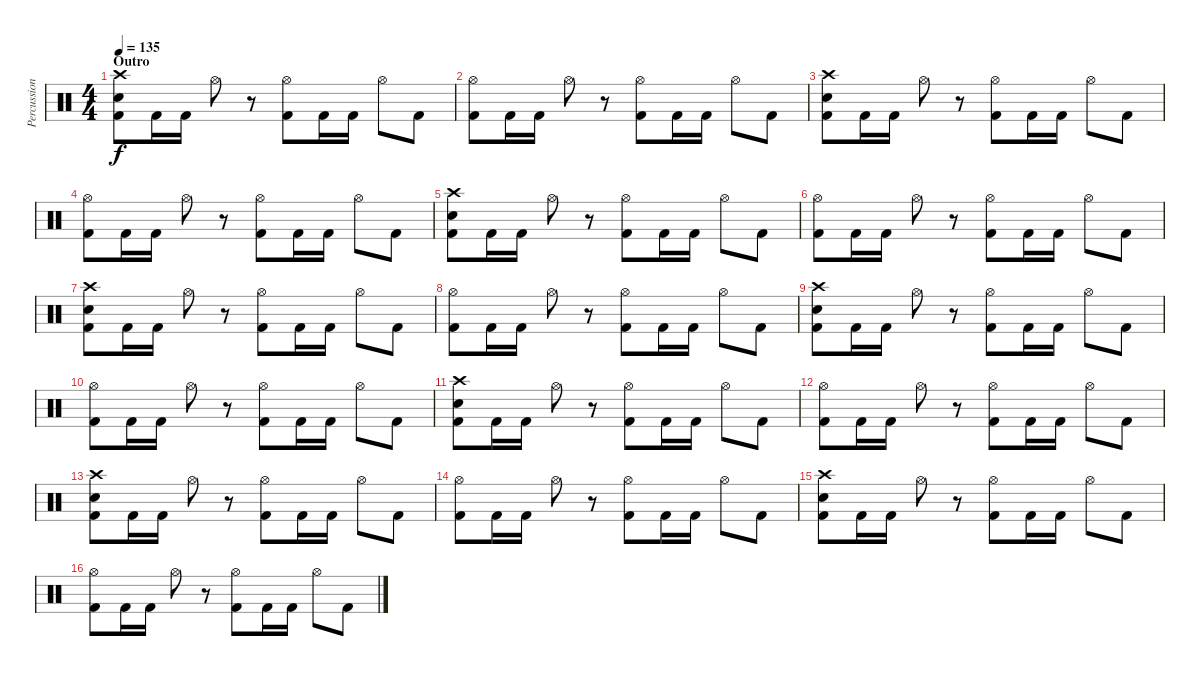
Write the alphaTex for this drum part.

\track ("Percussion" "Percussion") {instrument percussion}
\staff {score}
\articulation defaults
\ts (4 4)
\section ("" "Outro")
\tempo 135
\clef neutral
\ks c
("Crash high (hit)" "Electric Snare (hit)" "Kick (hit) 2").8{dy f} "Kick (hit) 2".16 "Kick (hit) 2".16 "Hi-Hat (open)".8 r.8 ("Hi-Hat (open)" "Kick (hit) 2").8 "Kick (hit) 2".16 "Kick (hit) 2".16 "Hi-Hat (open)".8 "Kick (hit) 2".8 |
("Hi-Hat (open)" "Kick (hit) 2").8 "Kick (hit) 2".16 "Kick (hit) 2".16 "Hi-Hat (open)".8 r.8 ("Hi-Hat (open)" "Kick (hit) 2").8 "Kick (hit) 2".16 "Kick (hit) 2".16 "Hi-Hat (open)".8 "Kick (hit) 2".8 |
("Crash high (hit)" "Electric Snare (hit)" "Kick (hit) 2").8 "Kick (hit) 2".16 "Kick (hit) 2".16 "Hi-Hat (open)".8 r.8 ("Hi-Hat (open)" "Kick (hit) 2").8 "Kick (hit) 2".16 "Kick (hit) 2".16 "Hi-Hat (open)".8 "Kick (hit) 2".8 |
("Hi-Hat (open)" "Kick (hit) 2").8 "Kick (hit) 2".16 "Kick (hit) 2".16 "Hi-Hat (open)".8 r.8 ("Hi-Hat (open)" "Kick (hit) 2").8 "Kick (hit) 2".16 "Kick (hit) 2".16 "Hi-Hat (open)".8 "Kick (hit) 2".8 |
("Crash high (hit)" "Electric Snare (hit)" "Kick (hit) 2").8 "Kick (hit) 2".16 "Kick (hit) 2".16 "Hi-Hat (open)".8 r.8 ("Hi-Hat (open)" "Kick (hit) 2").8 "Kick (hit) 2".16 "Kick (hit) 2".16 "Hi-Hat (open)".8 "Kick (hit) 2".8 |
("Hi-Hat (open)" "Kick (hit) 2").8 "Kick (hit) 2".16 "Kick (hit) 2".16 "Hi-Hat (open)".8 r.8 ("Hi-Hat (open)" "Kick (hit) 2").8 "Kick (hit) 2".16 "Kick (hit) 2".16 "Hi-Hat (open)".8 "Kick (hit) 2".8 |
("Crash high (hit)" "Electric Snare (hit)" "Kick (hit) 2").8 "Kick (hit) 2".16 "Kick (hit) 2".16 "Hi-Hat (open)".8 r.8 ("Hi-Hat (open)" "Kick (hit) 2").8 "Kick (hit) 2".16 "Kick (hit) 2".16 "Hi-Hat (open)".8 "Kick (hit) 2".8 |
("Hi-Hat (open)" "Kick (hit) 2").8 "Kick (hit) 2".16 "Kick (hit) 2".16 "Hi-Hat (open)".8 r.8 ("Hi-Hat (open)" "Kick (hit) 2").8 "Kick (hit) 2".16 "Kick (hit) 2".16 "Hi-Hat (open)".8 "Kick (hit) 2".8 |
("Crash high (hit)" "Electric Snare (hit)" "Kick (hit) 2").8 "Kick (hit) 2".16 "Kick (hit) 2".16 "Hi-Hat (open)".8 r.8 ("Hi-Hat (open)" "Kick (hit) 2").8 "Kick (hit) 2".16 "Kick (hit) 2".16 "Hi-Hat (open)".8 "Kick (hit) 2".8 |
("Hi-Hat (open)" "Kick (hit) 2").8 "Kick (hit) 2".16 "Kick (hit) 2".16 "Hi-Hat (open)".8 r.8 ("Hi-Hat (open)" "Kick (hit) 2").8 "Kick (hit) 2".16 "Kick (hit) 2".16 "Hi-Hat (open)".8 "Kick (hit) 2".8 |
("Crash high (hit)" "Electric Snare (hit)" "Kick (hit) 2").8 "Kick (hit) 2".16 "Kick (hit) 2".16 "Hi-Hat (open)".8 r.8 ("Hi-Hat (open)" "Kick (hit) 2").8 "Kick (hit) 2".16 "Kick (hit) 2".16 "Hi-Hat (open)".8 "Kick (hit) 2".8 |
("Hi-Hat (open)" "Kick (hit) 2").8 "Kick (hit) 2".16 "Kick (hit) 2".16 "Hi-Hat (open)".8 r.8 ("Hi-Hat (open)" "Kick (hit) 2").8 "Kick (hit) 2".16 "Kick (hit) 2".16 "Hi-Hat (open)".8 "Kick (hit) 2".8 |
("Crash high (hit)" "Electric Snare (hit)" "Kick (hit) 2").8 "Kick (hit) 2".16 "Kick (hit) 2".16 "Hi-Hat (open)".8 r.8 ("Hi-Hat (open)" "Kick (hit) 2").8 "Kick (hit) 2".16 "Kick (hit) 2".16 "Hi-Hat (open)".8 "Kick (hit) 2".8 |
("Hi-Hat (open)" "Kick (hit) 2").8 "Kick (hit) 2".16 "Kick (hit) 2".16 "Hi-Hat (open)".8 r.8 ("Hi-Hat (open)" "Kick (hit) 2").8 "Kick (hit) 2".16 "Kick (hit) 2".16 "Hi-Hat (open)".8 "Kick (hit) 2".8 |
("Crash high (hit)" "Electric Snare (hit)" "Kick (hit) 2").8 "Kick (hit) 2".16 "Kick (hit) 2".16 "Hi-Hat (open)".8 r.8 ("Hi-Hat (open)" "Kick (hit) 2").8 "Kick (hit) 2".16 "Kick (hit) 2".16 "Hi-Hat (open)".8 "Kick (hit) 2".8 |
("Hi-Hat (open)" "Kick (hit) 2").8 "Kick (hit) 2".16 "Kick (hit) 2".16 "Hi-Hat (open)".8 r.8 ("Hi-Hat (open)" "Kick (hit) 2").8 "Kick (hit) 2".16 "Kick (hit) 2".16 "Hi-Hat (open)".8 "Kick (hit) 2".8
